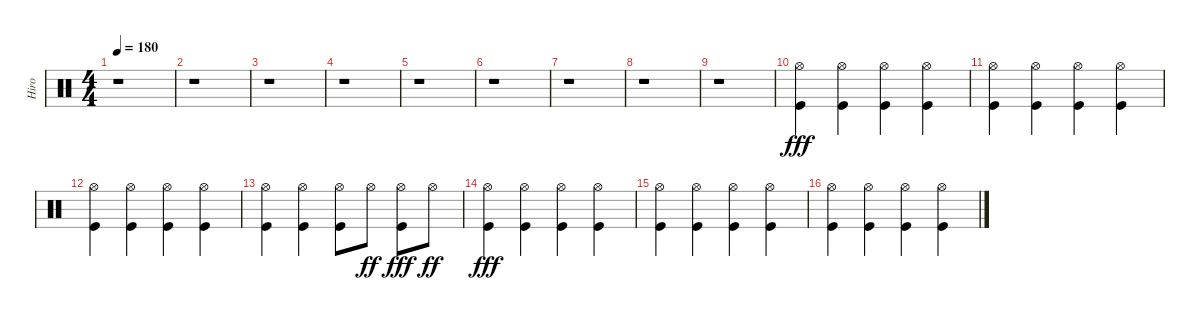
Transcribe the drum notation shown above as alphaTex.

\track ("Hiro" "Hiro") {instrument percussion}
\staff {score}
\articulation defaults
\ts (4 4)
\tempo 180
\clef neutral
\ks c
r.1{dy f} |
r.1 |
r.1 |
r.1 |
r.1 |
r.1 |
r.1 |
r.1 |
r.1 |
("Hi-Hat (open)" "Kick (hit)").4{dy fff} ("Hi-Hat (open)" "Kick (hit)").4 ("Hi-Hat (open)" "Kick (hit)").4 ("Hi-Hat (open)" "Kick (hit)").4 |
("Hi-Hat (open)" "Kick (hit)").4 ("Hi-Hat (open)" "Kick (hit)").4 ("Hi-Hat (open)" "Kick (hit)").4 ("Hi-Hat (open)" "Kick (hit)").4 |
("Hi-Hat (open)" "Kick (hit)").4 ("Hi-Hat (open)" "Kick (hit)").4 ("Hi-Hat (open)" "Kick (hit)").4 ("Hi-Hat (open)" "Kick (hit)").4 |
("Hi-Hat (open)" "Kick (hit)").4 ("Hi-Hat (open)" "Kick (hit)").4 ("Hi-Hat (open)" "Kick (hit)").8 "Hi-Hat (open)".8{dy ff} ("Hi-Hat (open)" "Kick (hit)").8{dy fff} "Hi-Hat (open)".8{dy ff} |
("Hi-Hat (open)" "Kick (hit)").4{dy fff} ("Hi-Hat (open)" "Kick (hit)").4 ("Hi-Hat (open)" "Kick (hit)").4 ("Hi-Hat (open)" "Kick (hit)").4 |
("Hi-Hat (open)" "Kick (hit)").4 ("Hi-Hat (open)" "Kick (hit)").4 ("Hi-Hat (open)" "Kick (hit)").4 ("Hi-Hat (open)" "Kick (hit)").4 |
("Hi-Hat (open)" "Kick (hit)").4 ("Hi-Hat (open)" "Kick (hit)").4 ("Hi-Hat (open)" "Kick (hit)").4 ("Hi-Hat (open)" "Kick (hit)").4
